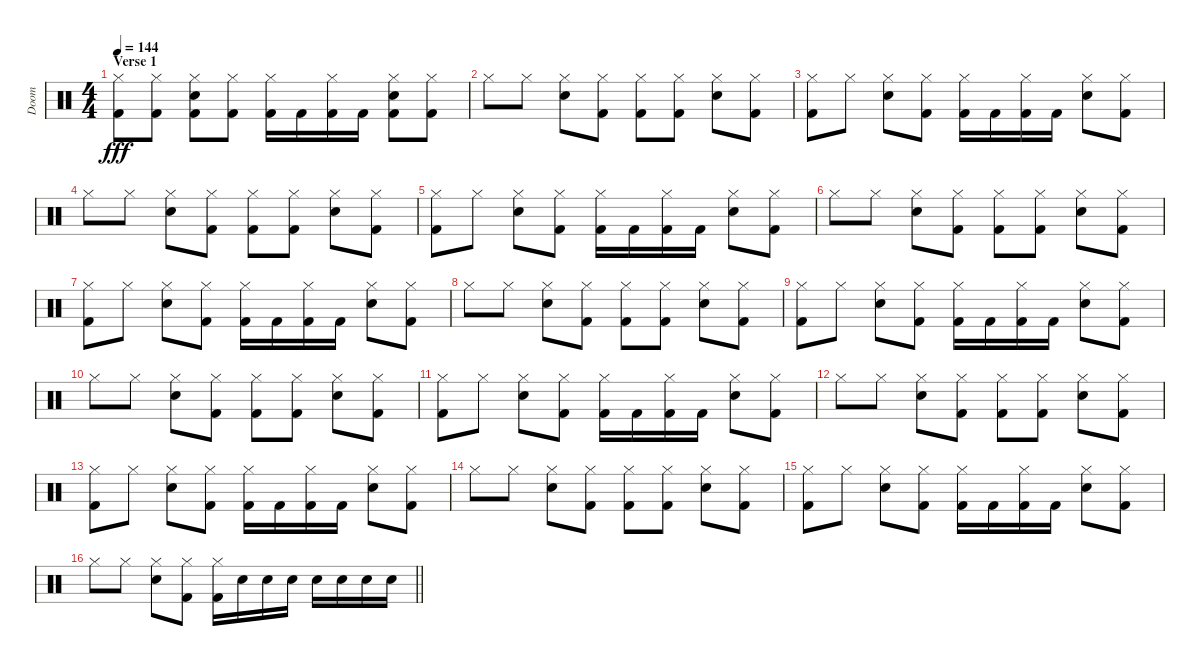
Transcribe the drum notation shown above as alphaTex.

\track ("Doom" "Doom") {instrument percussion}
\staff {score}
\articulation defaults
\ts (4 4)
\section ("" "Verse 1")
\tempo 144
\clef neutral
\ks c
("Kick (hit) 2" "Hi-Hat (closed)").8{dy fff} ("Kick (hit) 2" "Hi-Hat (closed)").8 ("Kick (hit) 2" "Hi-Hat (closed)" "Electric Snare (hit)").8 ("Kick (hit) 2" "Hi-Hat (closed)").8 ("Kick (hit) 2" "Hi-Hat (closed)").16 "Kick (hit) 2".16 ("Kick (hit) 2" "Hi-Hat (closed)").16 "Kick (hit) 2".16 ("Kick (hit) 2" "Hi-Hat (closed)" "Electric Snare (hit)").8 ("Kick (hit) 2" "Hi-Hat (closed)").8 |
"Hi-Hat (closed)".8 "Hi-Hat (closed)".8 ("Hi-Hat (closed)" "Electric Snare (hit)").8 ("Kick (hit) 2" "Hi-Hat (closed)").8 ("Kick (hit) 2" "Hi-Hat (closed)").8 ("Hi-Hat (closed)" "Kick (hit) 2").8 ("Hi-Hat (closed)" "Electric Snare (hit)").8 ("Hi-Hat (closed)" "Kick (hit) 2").8 |
("Kick (hit) 2" "Hi-Hat (closed)").8 "Hi-Hat (closed)".8 ("Hi-Hat (closed)" "Electric Snare (hit)").8 ("Kick (hit) 2" "Hi-Hat (closed)").8 ("Kick (hit) 2" "Hi-Hat (closed)").16 "Kick (hit) 2".16 ("Kick (hit) 2" "Hi-Hat (closed)").16 "Kick (hit) 2".16 ("Hi-Hat (closed)" "Electric Snare (hit)").8 ("Kick (hit) 2" "Hi-Hat (closed)").8 |
"Hi-Hat (closed)".8 "Hi-Hat (closed)".8 ("Hi-Hat (closed)" "Electric Snare (hit)").8 ("Kick (hit) 2" "Hi-Hat (closed)").8 ("Kick (hit) 2" "Hi-Hat (closed)").8 ("Hi-Hat (closed)" "Kick (hit) 2").8 ("Hi-Hat (closed)" "Electric Snare (hit)").8 ("Hi-Hat (closed)" "Kick (hit) 2").8 |
("Kick (hit) 2" "Hi-Hat (closed)").8 "Hi-Hat (closed)".8 ("Hi-Hat (closed)" "Electric Snare (hit)").8 ("Kick (hit) 2" "Hi-Hat (closed)").8 ("Kick (hit) 2" "Hi-Hat (closed)").16 "Kick (hit) 2".16 ("Kick (hit) 2" "Hi-Hat (closed)").16 "Kick (hit) 2".16 ("Hi-Hat (closed)" "Electric Snare (hit)").8 ("Kick (hit) 2" "Hi-Hat (closed)").8 |
"Hi-Hat (closed)".8 "Hi-Hat (closed)".8 ("Hi-Hat (closed)" "Electric Snare (hit)").8 ("Kick (hit) 2" "Hi-Hat (closed)").8 ("Kick (hit) 2" "Hi-Hat (closed)").8 ("Hi-Hat (closed)" "Kick (hit) 2").8 ("Hi-Hat (closed)" "Electric Snare (hit)").8 ("Hi-Hat (closed)" "Kick (hit) 2").8 |
("Kick (hit) 2" "Hi-Hat (closed)").8 "Hi-Hat (closed)".8 ("Hi-Hat (closed)" "Electric Snare (hit)").8 ("Kick (hit) 2" "Hi-Hat (closed)").8 ("Kick (hit) 2" "Hi-Hat (closed)").16 "Kick (hit) 2".16 ("Kick (hit) 2" "Hi-Hat (closed)").16 "Kick (hit) 2".16 ("Hi-Hat (closed)" "Electric Snare (hit)").8 ("Kick (hit) 2" "Hi-Hat (closed)").8 |
"Hi-Hat (closed)".8 "Hi-Hat (closed)".8 ("Hi-Hat (closed)" "Electric Snare (hit)").8 ("Kick (hit) 2" "Hi-Hat (closed)").8 ("Kick (hit) 2" "Hi-Hat (closed)").8 ("Hi-Hat (closed)" "Kick (hit) 2").8 ("Hi-Hat (closed)" "Electric Snare (hit)").8 ("Hi-Hat (closed)" "Kick (hit) 2").8 |
("Kick (hit) 2" "Hi-Hat (closed)").8 "Hi-Hat (closed)".8 ("Hi-Hat (closed)" "Electric Snare (hit)").8 ("Kick (hit) 2" "Hi-Hat (closed)").8 ("Kick (hit) 2" "Hi-Hat (closed)").16 "Kick (hit) 2".16 ("Kick (hit) 2" "Hi-Hat (closed)").16 "Kick (hit) 2".16 ("Hi-Hat (closed)" "Electric Snare (hit)").8 ("Kick (hit) 2" "Hi-Hat (closed)").8 |
"Hi-Hat (closed)".8 "Hi-Hat (closed)".8 ("Hi-Hat (closed)" "Electric Snare (hit)").8 ("Kick (hit) 2" "Hi-Hat (closed)").8 ("Kick (hit) 2" "Hi-Hat (closed)").8 ("Hi-Hat (closed)" "Kick (hit) 2").8 ("Hi-Hat (closed)" "Electric Snare (hit)").8 ("Hi-Hat (closed)" "Kick (hit) 2").8 |
("Kick (hit) 2" "Hi-Hat (closed)").8 "Hi-Hat (closed)".8 ("Hi-Hat (closed)" "Electric Snare (hit)").8 ("Kick (hit) 2" "Hi-Hat (closed)").8 ("Kick (hit) 2" "Hi-Hat (closed)").16 "Kick (hit) 2".16 ("Kick (hit) 2" "Hi-Hat (closed)").16 "Kick (hit) 2".16 ("Hi-Hat (closed)" "Electric Snare (hit)").8 ("Kick (hit) 2" "Hi-Hat (closed)").8 |
"Hi-Hat (closed)".8 "Hi-Hat (closed)".8 ("Hi-Hat (closed)" "Electric Snare (hit)").8 ("Kick (hit) 2" "Hi-Hat (closed)").8 ("Kick (hit) 2" "Hi-Hat (closed)").8 ("Hi-Hat (closed)" "Kick (hit) 2").8 ("Hi-Hat (closed)" "Electric Snare (hit)").8 ("Hi-Hat (closed)" "Kick (hit) 2").8 |
("Kick (hit) 2" "Hi-Hat (closed)").8 "Hi-Hat (closed)".8 ("Hi-Hat (closed)" "Electric Snare (hit)").8 ("Kick (hit) 2" "Hi-Hat (closed)").8 ("Kick (hit) 2" "Hi-Hat (closed)").16 "Kick (hit) 2".16 ("Kick (hit) 2" "Hi-Hat (closed)").16 "Kick (hit) 2".16 ("Hi-Hat (closed)" "Electric Snare (hit)").8 ("Kick (hit) 2" "Hi-Hat (closed)").8 |
"Hi-Hat (closed)".8 "Hi-Hat (closed)".8 ("Hi-Hat (closed)" "Electric Snare (hit)").8 ("Kick (hit) 2" "Hi-Hat (closed)").8 ("Kick (hit) 2" "Hi-Hat (closed)").8 ("Hi-Hat (closed)" "Kick (hit) 2").8 ("Hi-Hat (closed)" "Electric Snare (hit)").8 ("Hi-Hat (closed)" "Kick (hit) 2").8 |
("Kick (hit) 2" "Hi-Hat (closed)").8 "Hi-Hat (closed)".8 ("Hi-Hat (closed)" "Electric Snare (hit)").8 ("Kick (hit) 2" "Hi-Hat (closed)").8 ("Kick (hit) 2" "Hi-Hat (closed)").16 "Kick (hit) 2".16 ("Kick (hit) 2" "Hi-Hat (closed)").16 "Kick (hit) 2".16 ("Hi-Hat (closed)" "Electric Snare (hit)").8 ("Kick (hit) 2" "Hi-Hat (closed)").8 |
\barLineRight lightlight "Hi-Hat (closed)".8 "Hi-Hat (closed)".8
("Hi-Hat (closed)" "Electric Snare (hit)").8 ("Kick (hit) 2" "Hi-Hat (closed)").8 ("Kick (hit) 2" "Hi-Hat (closed)").16 "Electric Snare (hit)".16 "Electric Snare (hit)".16 "Electric Snare (hit)".16 "Electric Snare (hit)".16 "Electric Snare (hit)".16 "Electric Snare (hit)".16 "Electric Snare (hit)".16
